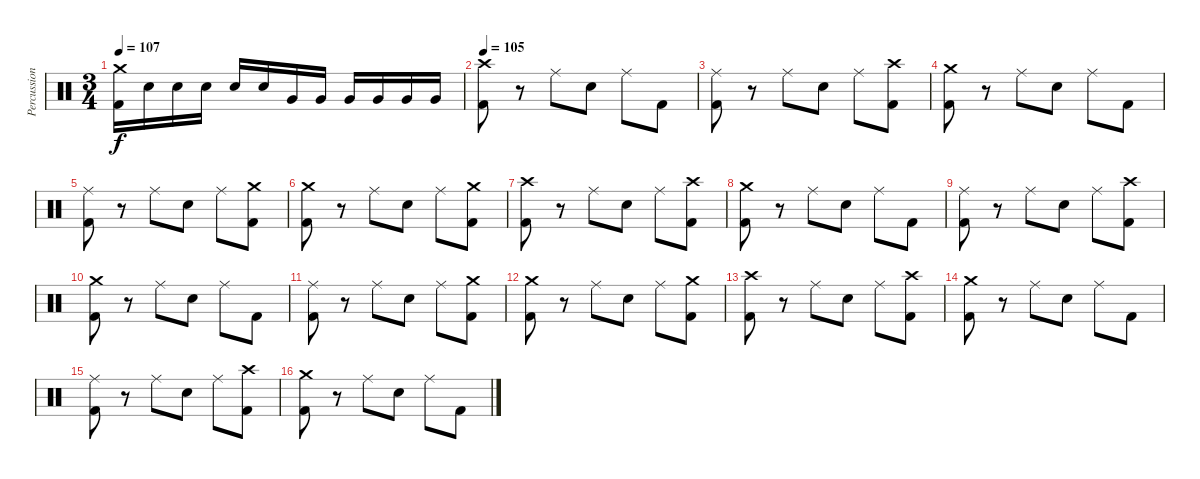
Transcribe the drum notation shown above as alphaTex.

\track ("Percussions" "Percussion") {instrument percussion}
\staff {score}
\articulation defaults
\ts (3 4)
\tempo 107
\clef neutral
\ks c
("Crash medium (hit)" "Kick (hit) 2").16{dy f} "Snare (hit) 2".16 "Snare (hit) 2".16 "Snare (hit) 2".16 "Snare (hit) 2".16 "Snare (hit) 2".16 "Very Low Tom (hit)".16 "Very Low Tom (hit)".16 "Very Low Tom (hit)".16 "Very Low Tom (hit)".16 "Very Low Tom (hit)".16 "Very Low Tom (hit)".16 |
\tempo 105
("Crash high (hit)" "Kick (hit) 2").8 r.8 "Ride (middle)".8 "Snare (hit) 2".8 "Ride (middle)".8 "Kick (hit) 2".8 |
("Ride (middle)" "Kick (hit) 2").8 r.8 "Ride (middle)".8 "Snare (hit) 2".8 "Ride (middle)".8 ("Crash high (hit)" "Kick (hit) 2").8 |
("Crash medium (hit)" "Kick (hit) 2").8 r.8 "Ride (middle)".8 "Snare (hit) 2".8 "Ride (middle)".8 "Kick (hit) 2".8 |
("Ride (middle)" "Kick (hit) 2").8 r.8 "Ride (middle)".8 "Snare (hit) 2".8 "Ride (middle)".8 ("Crash medium (hit)" "Kick (hit) 2").8 |
("Crash medium (hit)" "Kick (hit) 2").8 r.8 "Ride (middle)".8 "Snare (hit) 2".8 "Ride (middle)".8 ("Crash medium (hit)" "Kick (hit) 2").8 |
("Crash high (hit)" "Kick (hit) 2").8 r.8 "Ride (middle)".8 "Snare (hit) 2".8 "Ride (middle)".8 ("Crash high (hit)" "Kick (hit) 2").8 |
("Crash medium (hit)" "Kick (hit) 2").8 r.8 "Ride (middle)".8 "Snare (hit) 2".8 "Ride (middle)".8 "Kick (hit) 2".8 |
("Ride (middle)" "Kick (hit) 2").8 r.8 "Ride (middle)".8 "Snare (hit) 2".8 "Ride (middle)".8 ("Crash high (hit)" "Kick (hit) 2").8 |
("Crash medium (hit)" "Kick (hit) 2").8 r.8 "Ride (middle)".8 "Snare (hit) 2".8 "Ride (middle)".8 "Kick (hit) 2".8 |
("Ride (middle)" "Kick (hit) 2").8 r.8 "Ride (middle)".8 "Snare (hit) 2".8 "Ride (middle)".8 ("Crash medium (hit)" "Kick (hit) 2").8 |
("Crash medium (hit)" "Kick (hit) 2").8 r.8 "Ride (middle)".8 "Snare (hit) 2".8 "Ride (middle)".8 ("Crash medium (hit)" "Kick (hit) 2").8 |
("Crash high (hit)" "Kick (hit) 2").8 r.8 "Ride (middle)".8 "Snare (hit) 2".8 "Ride (middle)".8 ("Crash high (hit)" "Kick (hit) 2").8 |
("Crash medium (hit)" "Kick (hit) 2").8 r.8 "Ride (middle)".8 "Snare (hit) 2".8 "Ride (middle)".8 "Kick (hit) 2".8 |
("Ride (middle)" "Kick (hit) 2").8 r.8 "Ride (middle)".8 "Snare (hit) 2".8 "Ride (middle)".8 ("Crash high (hit)" "Kick (hit) 2").8 |
("Crash medium (hit)" "Kick (hit) 2").8 r.8 "Ride (middle)".8 "Snare (hit) 2".8 "Ride (middle)".8 "Kick (hit) 2".8
